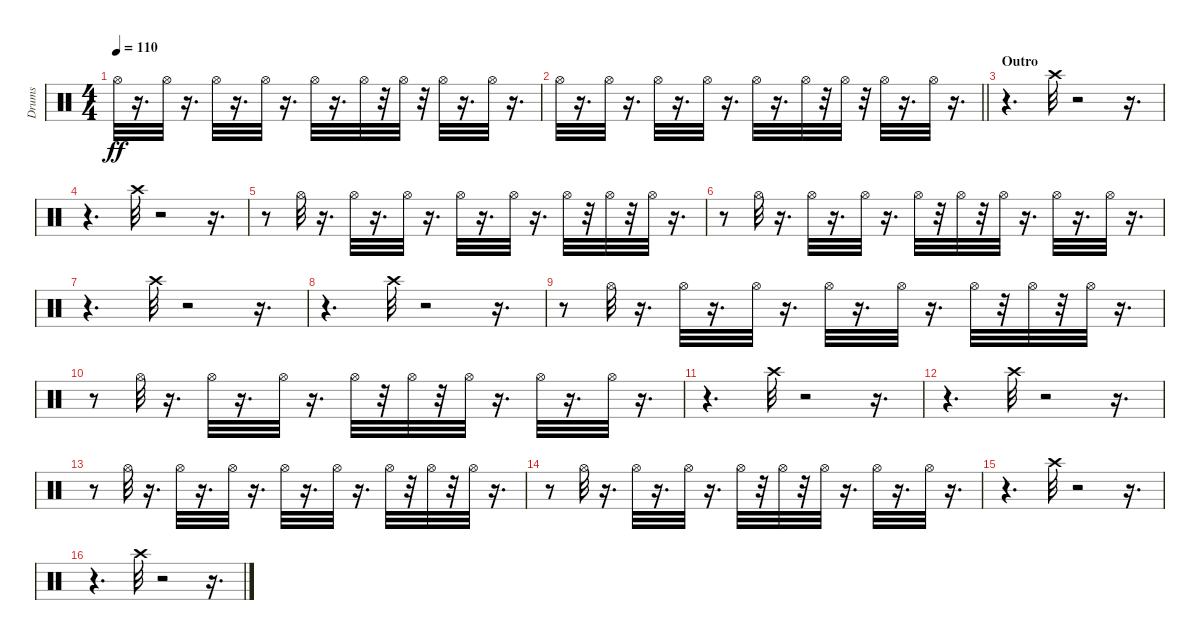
\track ("Drums" "Drums") {instrument percussion}
\staff {score}
\articulation defaults
\ts (4 4)
\tempo 110
\clef neutral
\ks c "Hi-Hat (open)".32{dy ff}
r.16{d} "Hi-Hat (open)".32 r.16{d} "Hi-Hat (open)".32 r.16{d} "Hi-Hat (open)".32 r.16{d} "Hi-Hat (open)".32 r.16{d} "Hi-Hat (open)".32 r.32 "Hi-Hat (open)".32 r.32 "Hi-Hat (open)".32 r.16{d} "Hi-Hat (open)".32 r.16{d} |
\barLineRight lightlight "Hi-Hat (open)".32
r.16{d} "Hi-Hat (open)".32 r.16{d} "Hi-Hat (open)".32 r.16{d} "Hi-Hat (open)".32 r.16{d} "Hi-Hat (open)".32 r.16{d} "Hi-Hat (open)".32 r.32 "Hi-Hat (open)".32 r.32 "Hi-Hat (open)".32 r.16{d} "Hi-Hat (open)".32 r.16{d} |
\section ("" "Outro")
r.4{d} "Crash high (hit)".32 r.2 r.16{d} |
r.4{d} "Crash high (hit)".32 r.2 r.16{d} |
r.8 "Hi-Hat (open)".32 r.16{d} "Hi-Hat (open)".32 r.16{d} "Hi-Hat (open)".32 r.16{d} "Hi-Hat (open)".32 r.16{d} "Hi-Hat (open)".32 r.16{d} "Hi-Hat (open)".32 r.32 "Hi-Hat (open)".32 r.32 "Hi-Hat (open)".32 r.16{d} |
r.8 "Hi-Hat (open)".32 r.16{d} "Hi-Hat (open)".32 r.16{d} "Hi-Hat (open)".32 r.16{d} "Hi-Hat (open)".32 r.32 "Hi-Hat (open)".32 r.32 "Hi-Hat (open)".32 r.16{d} "Hi-Hat (open)".32 r.16{d} "Hi-Hat (open)".32 r.16{d} |
r.4{d} "Crash high (hit)".32 r.2 r.16{d} |
r.4{d} "Crash high (hit)".32 r.2 r.16{d} |
r.8 "Hi-Hat (open)".32 r.16{d} "Hi-Hat (open)".32 r.16{d} "Hi-Hat (open)".32 r.16{d} "Hi-Hat (open)".32 r.16{d} "Hi-Hat (open)".32 r.16{d} "Hi-Hat (open)".32 r.32 "Hi-Hat (open)".32 r.32 "Hi-Hat (open)".32 r.16{d} |
r.8 "Hi-Hat (open)".32 r.16{d} "Hi-Hat (open)".32 r.16{d} "Hi-Hat (open)".32 r.16{d} "Hi-Hat (open)".32 r.32 "Hi-Hat (open)".32 r.32 "Hi-Hat (open)".32 r.16{d} "Hi-Hat (open)".32 r.16{d} "Hi-Hat (open)".32 r.16{d} |
r.4{d} "Crash high (hit)".32 r.2 r.16{d} |
r.4{d} "Crash high (hit)".32 r.2 r.16{d} |
r.8 "Hi-Hat (open)".32 r.16{d} "Hi-Hat (open)".32 r.16{d} "Hi-Hat (open)".32 r.16{d} "Hi-Hat (open)".32 r.16{d} "Hi-Hat (open)".32 r.16{d} "Hi-Hat (open)".32 r.32 "Hi-Hat (open)".32 r.32 "Hi-Hat (open)".32 r.16{d} |
r.8 "Hi-Hat (open)".32 r.16{d} "Hi-Hat (open)".32 r.16{d} "Hi-Hat (open)".32 r.16{d} "Hi-Hat (open)".32 r.32 "Hi-Hat (open)".32 r.32 "Hi-Hat (open)".32 r.16{d} "Hi-Hat (open)".32 r.16{d} "Hi-Hat (open)".32 r.16{d} |
r.4{d} "Crash high (hit)".32 r.2 r.16{d} |
r.4{d} "Crash high (hit)".32 r.2 r.16{d}
